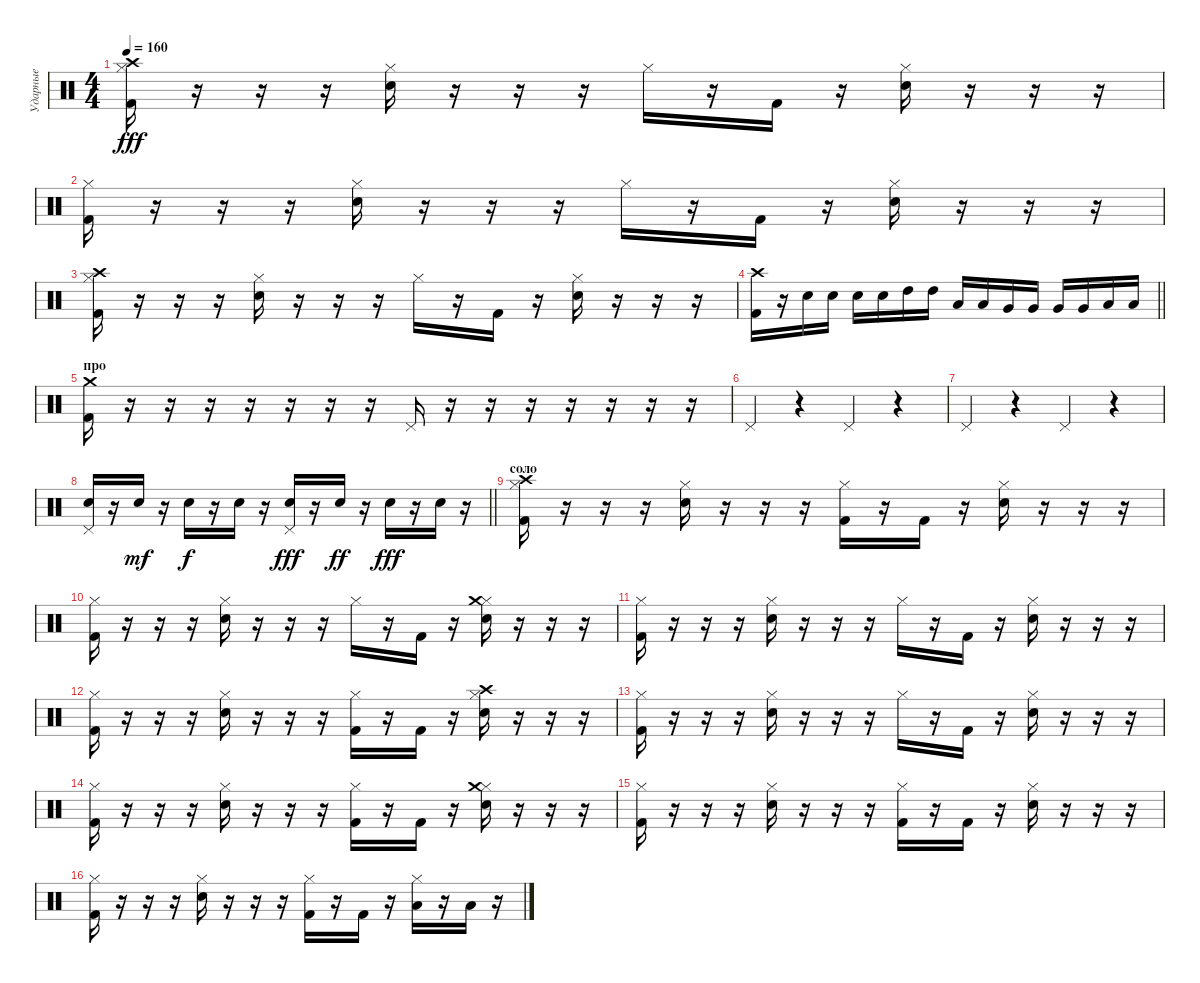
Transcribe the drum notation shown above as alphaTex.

\track ("Ударные" "Ударные") {instrument percussion}
\staff {score}
\articulation defaults
\ts (4 4)
\tempo 160
\clef neutral
\ks c
("Kick (hit) 2" "Hi-Hat (closed)" "Crash high (hit)").16{dy fff} r.16 r.16 r.16 ("Snare (hit) 2" "Hi-Hat (closed)").16 r.16 r.16 r.16 "Hi-Hat (closed)".16 r.16 "Kick (hit) 2".16 r.16 ("Snare (hit) 2" "Hi-Hat (closed)").16 r.16 r.16 r.16 |
("Kick (hit) 2" "Hi-Hat (closed)").16 r.16 r.16 r.16 ("Snare (hit) 2" "Hi-Hat (closed)").16 r.16 r.16 r.16 "Hi-Hat (closed)".16 r.16 "Kick (hit) 2".16 r.16 ("Snare (hit) 2" "Hi-Hat (closed)").16 r.16 r.16 r.16 |
("Kick (hit) 2" "Hi-Hat (closed)" "Crash high (hit)").16 r.16 r.16 r.16 ("Snare (hit) 2" "Hi-Hat (closed)").16 r.16 r.16 r.16 "Hi-Hat (closed)".16 r.16 "Kick (hit) 2".16 r.16 ("Snare (hit) 2" "Hi-Hat (closed)").16 r.16 r.16 r.16 |
\barLineRight lightlight
("Kick (hit) 2" "Crash high (hit)").16 r.16 "Snare (hit) 2".16 "Snare (hit) 2".16 "Snare (hit) 2".16 "Snare (hit) 2".16 "High Tom (hit)".16 "High Tom (hit)".16 "Low Tom (hit)".16 "Low Tom (hit)".16 "Very Low Tom (hit)".16 "Very Low Tom (hit)".16 "Very Low Tom (hit)".16 "Very Low Tom (hit)".16 "Low Floor Tom (hit)".16 "Low Floor Tom (hit)".16 |
\section ("" "про")
("Kick (hit) 2" "Crash medium (hit)").16 r.16 r.16 r.16 r.16 r.16 r.16 r.16 "Pedal Hi-Hat (hit)".16 r.16 r.16 r.16 r.16 r.16 r.16 r.16 |
"Pedal Hi-Hat (hit)".4 r.4 "Pedal Hi-Hat (hit)".4 r.4 |
"Pedal Hi-Hat (hit)".4 r.4 "Pedal Hi-Hat (hit)".4 r.4 |
\barLineRight lightlight
("Electric Snare (hit)" "Pedal Hi-Hat (hit)").16 r.16 "Electric Snare (hit)".16{dy mf} r.16 "Electric Snare (hit)".16{dy f} r.16 "Electric Snare (hit)".16 r.16 ("Electric Snare (hit)" "Pedal Hi-Hat (hit)").16{dy fff} r.16 "Electric Snare (hit)".16{dy ff} r.16 "Electric Snare (hit)".16{dy fff} r.16 "Electric Snare (hit)".16 r.16 |
\section ("" "соло")
("Kick (hit) 2" "Hi-Hat (closed)" "Crash high (hit)").16 r.16 r.16 r.16 ("Snare (hit) 2" "Hi-Hat (closed)").16 r.16 r.16 r.16 ("Kick (hit) 2" "Hi-Hat (closed)").16 r.16 "Kick (hit) 2".16 r.16 ("Snare (hit) 2" "Hi-Hat (closed)").16 r.16 r.16 r.16 |
("Kick (hit) 2" "Hi-Hat (closed)").16 r.16 r.16 r.16 ("Snare (hit) 2" "Hi-Hat (closed)").16 r.16 r.16 r.16 "Hi-Hat (closed)".16 r.16 "Kick (hit) 2".16 r.16 ("Snare (hit) 2" "Hi-Hat (closed)" "Crash medium (hit)").16 r.16 r.16 r.16 |
("Kick (hit) 2" "Hi-Hat (closed)").16 r.16 r.16 r.16 ("Snare (hit) 2" "Hi-Hat (closed)").16 r.16 r.16 r.16 "Hi-Hat (closed)".16 r.16 "Kick (hit) 2".16 r.16 ("Snare (hit) 2" "Hi-Hat (closed)").16 r.16 r.16 r.16 |
("Kick (hit) 2" "Hi-Hat (closed)").16 r.16 r.16 r.16 ("Snare (hit) 2" "Hi-Hat (closed)").16 r.16 r.16 r.16 ("Kick (hit) 2" "Hi-Hat (closed)").16 r.16 "Kick (hit) 2".16 r.16 ("Snare (hit) 2" "Hi-Hat (closed)" "Crash high (hit)").16 r.16 r.16 r.16 |
("Kick (hit) 2" "Hi-Hat (closed)").16 r.16 r.16 r.16 ("Snare (hit) 2" "Hi-Hat (closed)").16 r.16 r.16 r.16 "Hi-Hat (closed)".16 r.16 "Kick (hit) 2".16 r.16 ("Snare (hit) 2" "Hi-Hat (closed)").16 r.16 r.16 r.16 |
("Kick (hit) 2" "Hi-Hat (closed)").16 r.16 r.16 r.16 ("Snare (hit) 2" "Hi-Hat (closed)").16 r.16 r.16 r.16 ("Kick (hit) 2" "Hi-Hat (closed)").16 r.16 "Kick (hit) 2".16 r.16 ("Snare (hit) 2" "Hi-Hat (closed)" "Crash medium (hit)").16 r.16 r.16 r.16 |
("Kick (hit) 2" "Hi-Hat (closed)").16 r.16 r.16 r.16 ("Snare (hit) 2" "Hi-Hat (closed)").16 r.16 r.16 r.16 ("Kick (hit) 2" "Hi-Hat (closed)").16 r.16 "Kick (hit) 2".16 r.16 ("Snare (hit) 2" "Hi-Hat (closed)").16 r.16 r.16 r.16 |
("Kick (hit) 2" "Hi-Hat (closed)").16 r.16 r.16 r.16 ("Snare (hit) 2" "Hi-Hat (closed)").16 r.16 r.16 r.16 ("Kick (hit) 2" "Hi-Hat (closed)").16 r.16 "Kick (hit) 2".16 r.16 ("Low Tom (hit)" "Hi-Hat (closed)").16 r.16 "Low Tom (hit)".16 r.16
